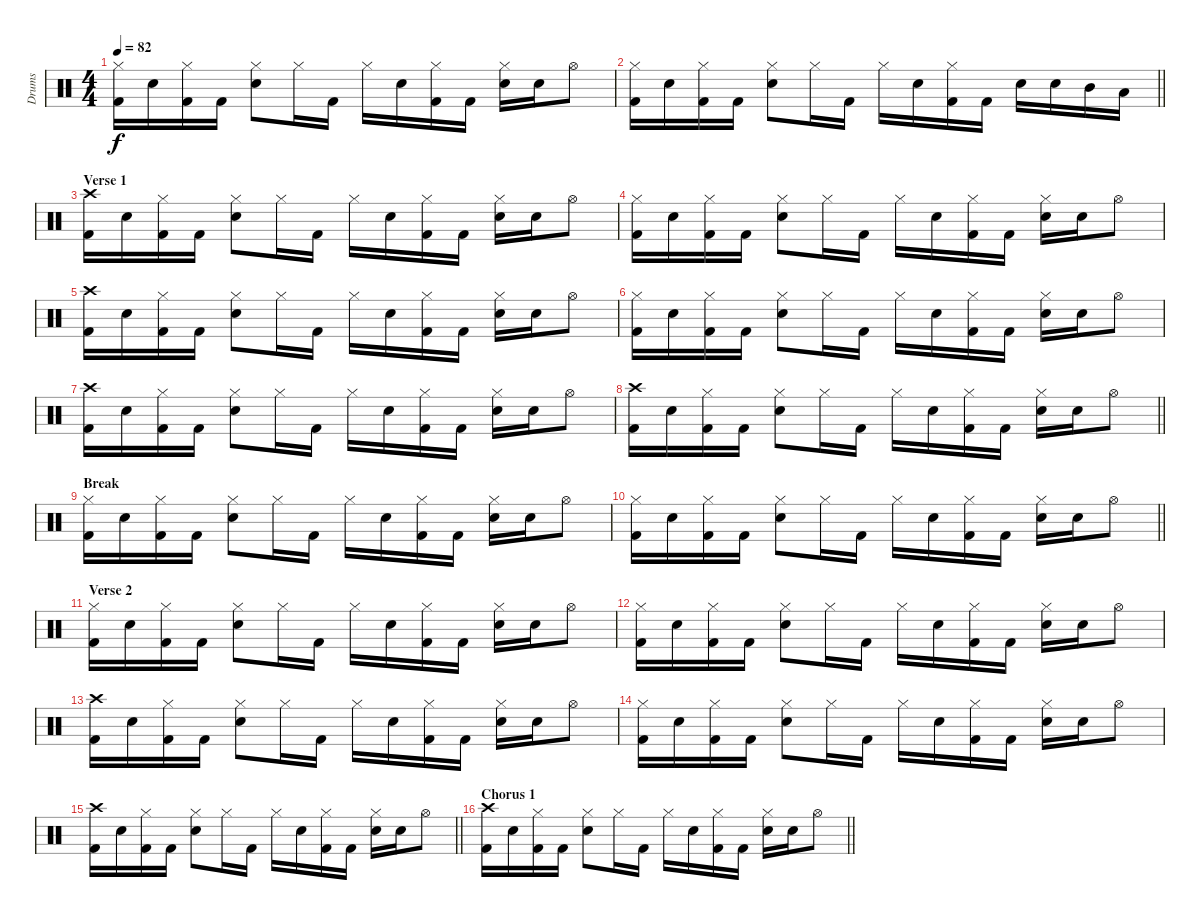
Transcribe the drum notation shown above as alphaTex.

\track ("Drums" "Drums") {instrument percussion}
\staff {score}
\articulation defaults
\ts (4 4)
\tempo 82
\clef neutral
\ks c
("Hi-Hat (closed)" "Kick (hit) 2").16{dy f} "Snare (hit) 2".16 ("Hi-Hat (closed)" "Kick (hit) 2").16 "Kick (hit) 2".16 ("Hi-Hat (closed)" "Snare (hit) 2").8 "Hi-Hat (closed)".16 "Kick (hit) 2".16 "Hi-Hat (closed)".16 "Snare (hit) 2".16 ("Hi-Hat (closed)" "Kick (hit) 2").16 "Kick (hit) 2".16 ("Hi-Hat (closed)" "Snare (hit) 2").16 "Snare (hit) 2".16 "Hi-Hat (open)".8 |
\barLineRight lightlight
("Hi-Hat (closed)" "Kick (hit) 2").16 "Snare (hit) 2".16 ("Hi-Hat (closed)" "Kick (hit) 2").16 "Kick (hit) 2".16 ("Hi-Hat (closed)" "Snare (hit) 2").8 "Hi-Hat (closed)".16 "Kick (hit) 2".16 "Hi-Hat (closed)".16 "Snare (hit) 2".16 ("Hi-Hat (closed)" "Kick (hit) 2").16 "Kick (hit) 2".16 "Snare (hit) 2".16 "Snare (hit) 2".16 "Mid Tom (hit)".16 "Low Tom (hit)".16 |
\section ("" "Verse 1")
("Crash high (hit)" "Kick (hit) 2").16 "Snare (hit) 2".16 ("Hi-Hat (closed)" "Kick (hit) 2").16 "Kick (hit) 2".16 ("Hi-Hat (closed)" "Snare (hit) 2").8 "Hi-Hat (closed)".16 "Kick (hit) 2".16 "Hi-Hat (closed)".16 "Snare (hit) 2".16 ("Hi-Hat (closed)" "Kick (hit) 2").16 "Kick (hit) 2".16 ("Hi-Hat (closed)" "Snare (hit) 2").16 "Snare (hit) 2".16 "Hi-Hat (open)".8 |
("Hi-Hat (closed)" "Kick (hit) 2").16 "Snare (hit) 2".16 ("Hi-Hat (closed)" "Kick (hit) 2").16 "Kick (hit) 2".16 ("Hi-Hat (closed)" "Snare (hit) 2").8 "Hi-Hat (closed)".16 "Kick (hit) 2".16 "Hi-Hat (closed)".16 "Snare (hit) 2".16 ("Hi-Hat (closed)" "Kick (hit) 2").16 "Kick (hit) 2".16 ("Hi-Hat (closed)" "Snare (hit) 2").16 "Snare (hit) 2".16 "Hi-Hat (open)".8 |
("Crash high (hit)" "Kick (hit) 2").16 "Snare (hit) 2".16 ("Hi-Hat (closed)" "Kick (hit) 2").16 "Kick (hit) 2".16 ("Hi-Hat (closed)" "Snare (hit) 2").8 "Hi-Hat (closed)".16 "Kick (hit) 2".16 "Hi-Hat (closed)".16 "Snare (hit) 2".16 ("Hi-Hat (closed)" "Kick (hit) 2").16 "Kick (hit) 2".16 ("Hi-Hat (closed)" "Snare (hit) 2").16 "Snare (hit) 2".16 "Hi-Hat (open)".8 |
("Hi-Hat (closed)" "Kick (hit) 2").16 "Snare (hit) 2".16 ("Hi-Hat (closed)" "Kick (hit) 2").16 "Kick (hit) 2".16 ("Hi-Hat (closed)" "Snare (hit) 2").8 "Hi-Hat (closed)".16 "Kick (hit) 2".16 "Hi-Hat (closed)".16 "Snare (hit) 2".16 ("Hi-Hat (closed)" "Kick (hit) 2").16 "Kick (hit) 2".16 ("Hi-Hat (closed)" "Snare (hit) 2").16 "Snare (hit) 2".16 "Hi-Hat (open)".8 |
("Crash high (hit)" "Kick (hit) 2").16 "Snare (hit) 2".16 ("Hi-Hat (closed)" "Kick (hit) 2").16 "Kick (hit) 2".16 ("Hi-Hat (closed)" "Snare (hit) 2").8 "Hi-Hat (closed)".16 "Kick (hit) 2".16 "Hi-Hat (closed)".16 "Snare (hit) 2".16 ("Hi-Hat (closed)" "Kick (hit) 2").16 "Kick (hit) 2".16 ("Hi-Hat (closed)" "Snare (hit) 2").16 "Snare (hit) 2".16 "Hi-Hat (open)".8 |
\barLineRight lightlight
("Crash high (hit)" "Kick (hit) 2").16 "Snare (hit) 2".16 ("Hi-Hat (closed)" "Kick (hit) 2").16 "Kick (hit) 2".16 ("Hi-Hat (closed)" "Snare (hit) 2").8 "Hi-Hat (closed)".16 "Kick (hit) 2".16 "Hi-Hat (closed)".16 "Snare (hit) 2".16 ("Hi-Hat (closed)" "Kick (hit) 2").16 "Kick (hit) 2".16 ("Hi-Hat (closed)" "Snare (hit) 2").16 "Snare (hit) 2".16 "Hi-Hat (open)".8 |
\section ("" "Break")
("Hi-Hat (closed)" "Kick (hit) 2").16 "Snare (hit) 2".16 ("Hi-Hat (closed)" "Kick (hit) 2").16 "Kick (hit) 2".16 ("Hi-Hat (closed)" "Snare (hit) 2").8 "Hi-Hat (closed)".16 "Kick (hit) 2".16 "Hi-Hat (closed)".16 "Snare (hit) 2".16 ("Hi-Hat (closed)" "Kick (hit) 2").16 "Kick (hit) 2".16 ("Hi-Hat (closed)" "Snare (hit) 2").16 "Snare (hit) 2".16 "Hi-Hat (open)".8 |
\barLineRight lightlight
("Hi-Hat (closed)" "Kick (hit) 2").16 "Snare (hit) 2".16 ("Hi-Hat (closed)" "Kick (hit) 2").16 "Kick (hit) 2".16 ("Hi-Hat (closed)" "Snare (hit) 2").8 "Hi-Hat (closed)".16 "Kick (hit) 2".16 "Hi-Hat (closed)".16 "Snare (hit) 2".16 ("Hi-Hat (closed)" "Kick (hit) 2").16 "Kick (hit) 2".16 ("Hi-Hat (closed)" "Snare (hit) 2").16 "Snare (hit) 2".16 "Hi-Hat (open)".8 |
\section ("" "Verse 2")
("Hi-Hat (closed)" "Kick (hit) 2").16 "Snare (hit) 2".16 ("Hi-Hat (closed)" "Kick (hit) 2").16 "Kick (hit) 2".16 ("Hi-Hat (closed)" "Snare (hit) 2").8 "Hi-Hat (closed)".16 "Kick (hit) 2".16 "Hi-Hat (closed)".16 "Snare (hit) 2".16 ("Hi-Hat (closed)" "Kick (hit) 2").16 "Kick (hit) 2".16 ("Hi-Hat (closed)" "Snare (hit) 2").16 "Snare (hit) 2".16 "Hi-Hat (open)".8 |
("Hi-Hat (closed)" "Kick (hit) 2").16 "Snare (hit) 2".16 ("Hi-Hat (closed)" "Kick (hit) 2").16 "Kick (hit) 2".16 ("Hi-Hat (closed)" "Snare (hit) 2").8 "Hi-Hat (closed)".16 "Kick (hit) 2".16 "Hi-Hat (closed)".16 "Snare (hit) 2".16 ("Hi-Hat (closed)" "Kick (hit) 2").16 "Kick (hit) 2".16 ("Hi-Hat (closed)" "Snare (hit) 2").16 "Snare (hit) 2".16 "Hi-Hat (open)".8 |
("Crash high (hit)" "Kick (hit) 2").16 "Snare (hit) 2".16 ("Hi-Hat (closed)" "Kick (hit) 2").16 "Kick (hit) 2".16 ("Hi-Hat (closed)" "Snare (hit) 2").8 "Hi-Hat (closed)".16 "Kick (hit) 2".16 "Hi-Hat (closed)".16 "Snare (hit) 2".16 ("Hi-Hat (closed)" "Kick (hit) 2").16 "Kick (hit) 2".16 ("Hi-Hat (closed)" "Snare (hit) 2").16 "Snare (hit) 2".16 "Hi-Hat (open)".8 |
("Hi-Hat (closed)" "Kick (hit) 2").16 "Snare (hit) 2".16 ("Hi-Hat (closed)" "Kick (hit) 2").16 "Kick (hit) 2".16 ("Hi-Hat (closed)" "Snare (hit) 2").8 "Hi-Hat (closed)".16 "Kick (hit) 2".16 "Hi-Hat (closed)".16 "Snare (hit) 2".16 ("Hi-Hat (closed)" "Kick (hit) 2").16 "Kick (hit) 2".16 ("Hi-Hat (closed)" "Snare (hit) 2").16 "Snare (hit) 2".16 "Hi-Hat (open)".8 |
\barLineRight lightlight
("Crash high (hit)" "Kick (hit) 2").16 "Snare (hit) 2".16 ("Hi-Hat (closed)" "Kick (hit) 2").16 "Kick (hit) 2".16 ("Hi-Hat (closed)" "Snare (hit) 2").8 "Hi-Hat (closed)".16 "Kick (hit) 2".16 "Hi-Hat (closed)".16 "Snare (hit) 2".16 ("Hi-Hat (closed)" "Kick (hit) 2").16 "Kick (hit) 2".16 ("Hi-Hat (closed)" "Snare (hit) 2").16 "Snare (hit) 2".16 "Hi-Hat (open)".8 |
\section ("" "Chorus 1")
\barLineRight lightlight
("Crash high (hit)" "Kick (hit) 2").16 "Snare (hit) 2".16 ("Hi-Hat (closed)" "Kick (hit) 2").16 "Kick (hit) 2".16 ("Hi-Hat (closed)" "Snare (hit) 2").8 "Hi-Hat (closed)".16 "Kick (hit) 2".16 "Hi-Hat (closed)".16 "Snare (hit) 2".16 ("Hi-Hat (closed)" "Kick (hit) 2").16 "Kick (hit) 2".16 ("Hi-Hat (closed)" "Snare (hit) 2").16 "Snare (hit) 2".16 "Hi-Hat (open)".8
